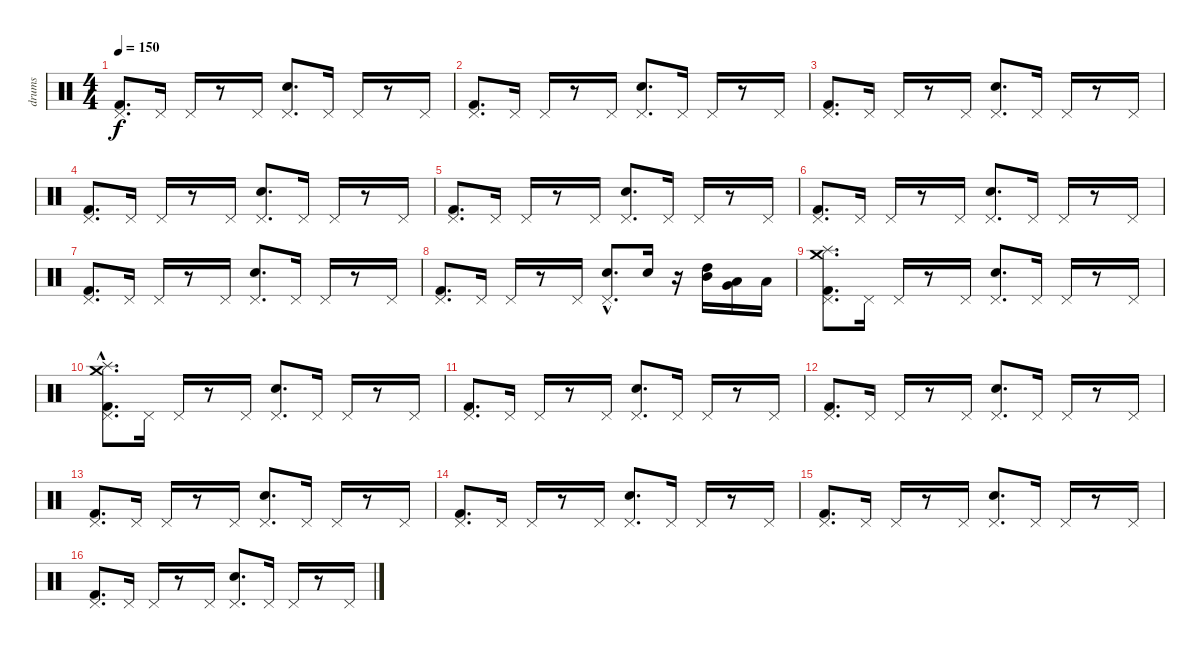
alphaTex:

\track ("drums" "drums") {instrument percussion}
\staff {score}
\articulation defaults
\ts (4 4)
\tempo 150
\clef neutral
\ks c
("Kick (hit) 2" "Pedal Hi-Hat (hit)").8{d dy f} "Pedal Hi-Hat (hit)".16 "Pedal Hi-Hat (hit)".16 r.8 "Pedal Hi-Hat (hit)".16 ("Snare (hit) 2" "Pedal Hi-Hat (hit)").8{d} "Pedal Hi-Hat (hit)".16 "Pedal Hi-Hat (hit)".16 r.8 "Pedal Hi-Hat (hit)".16 |
("Kick (hit) 2" "Pedal Hi-Hat (hit)").8{d} "Pedal Hi-Hat (hit)".16 "Pedal Hi-Hat (hit)".16 r.8 "Pedal Hi-Hat (hit)".16 ("Snare (hit) 2" "Pedal Hi-Hat (hit)").8{d} "Pedal Hi-Hat (hit)".16 "Pedal Hi-Hat (hit)".16 r.8 "Pedal Hi-Hat (hit)".16 |
("Kick (hit) 2" "Pedal Hi-Hat (hit)").8{d} "Pedal Hi-Hat (hit)".16 "Pedal Hi-Hat (hit)".16 r.8 "Pedal Hi-Hat (hit)".16 ("Snare (hit) 2" "Pedal Hi-Hat (hit)").8{d} "Pedal Hi-Hat (hit)".16 "Pedal Hi-Hat (hit)".16 r.8 "Pedal Hi-Hat (hit)".16 |
("Kick (hit) 2" "Pedal Hi-Hat (hit)").8{d} "Pedal Hi-Hat (hit)".16 "Pedal Hi-Hat (hit)".16 r.8 "Pedal Hi-Hat (hit)".16 ("Snare (hit) 2" "Pedal Hi-Hat (hit)").8{d} "Pedal Hi-Hat (hit)".16 "Pedal Hi-Hat (hit)".16 r.8 "Pedal Hi-Hat (hit)".16 |
("Kick (hit) 2" "Pedal Hi-Hat (hit)").8{d} "Pedal Hi-Hat (hit)".16 "Pedal Hi-Hat (hit)".16 r.8 "Pedal Hi-Hat (hit)".16 ("Snare (hit) 2" "Pedal Hi-Hat (hit)").8{d} "Pedal Hi-Hat (hit)".16 "Pedal Hi-Hat (hit)".16 r.8 "Pedal Hi-Hat (hit)".16 |
("Kick (hit) 2" "Pedal Hi-Hat (hit)").8{d} "Pedal Hi-Hat (hit)".16 "Pedal Hi-Hat (hit)".16 r.8 "Pedal Hi-Hat (hit)".16 ("Snare (hit) 2" "Pedal Hi-Hat (hit)").8{d} "Pedal Hi-Hat (hit)".16 "Pedal Hi-Hat (hit)".16 r.8 "Pedal Hi-Hat (hit)".16 |
("Kick (hit) 2" "Pedal Hi-Hat (hit)").8{d} "Pedal Hi-Hat (hit)".16 "Pedal Hi-Hat (hit)".16 r.8 "Pedal Hi-Hat (hit)".16 ("Snare (hit) 2" "Pedal Hi-Hat (hit)").8{d} "Pedal Hi-Hat (hit)".16 "Pedal Hi-Hat (hit)".16 r.8 "Pedal Hi-Hat (hit)".16 |
("Kick (hit) 2" "Pedal Hi-Hat (hit)").8{d} "Pedal Hi-Hat (hit)".16 "Pedal Hi-Hat (hit)".16 r.8 "Pedal Hi-Hat (hit)".16 ("Snare (hit) 2"{hac} "Pedal Hi-Hat (hit)").8{d} "Snare (hit) 2".16 r.16 ("Mid Tom (hit)" "High Tom (hit)").16 ("Very Low Tom (hit)" "Low Tom (hit)").16 "Low Floor Tom (hit)".16 |
("Crash medium (hit)" "Splash (hit)" "Kick (hit) 2" "Pedal Hi-Hat (hit)").8{d} "Pedal Hi-Hat (hit)".16 "Pedal Hi-Hat (hit)".16 r.8 "Pedal Hi-Hat (hit)".16 ("Snare (hit) 2" "Pedal Hi-Hat (hit)").8{d} "Pedal Hi-Hat (hit)".16 "Pedal Hi-Hat (hit)".16 r.8 "Pedal Hi-Hat (hit)".16 |
("Crash medium (hit)"{hac} "Splash (hit)"{hac} "Kick (hit) 2" "Pedal Hi-Hat (hit)").8{d} "Pedal Hi-Hat (hit)".16 "Pedal Hi-Hat (hit)".16 r.8 "Pedal Hi-Hat (hit)".16 ("Snare (hit) 2" "Pedal Hi-Hat (hit)").8{d} "Pedal Hi-Hat (hit)".16 "Pedal Hi-Hat (hit)".16 r.8 "Pedal Hi-Hat (hit)".16 |
("Kick (hit) 2" "Pedal Hi-Hat (hit)").8{d} "Pedal Hi-Hat (hit)".16 "Pedal Hi-Hat (hit)".16 r.8 "Pedal Hi-Hat (hit)".16 ("Snare (hit) 2" "Pedal Hi-Hat (hit)").8{d} "Pedal Hi-Hat (hit)".16 "Pedal Hi-Hat (hit)".16 r.8 "Pedal Hi-Hat (hit)".16 |
("Kick (hit) 2" "Pedal Hi-Hat (hit)").8{d} "Pedal Hi-Hat (hit)".16 "Pedal Hi-Hat (hit)".16 r.8 "Pedal Hi-Hat (hit)".16 ("Snare (hit) 2" "Pedal Hi-Hat (hit)").8{d} "Pedal Hi-Hat (hit)".16 "Pedal Hi-Hat (hit)".16 r.8 "Pedal Hi-Hat (hit)".16 |
("Kick (hit) 2" "Pedal Hi-Hat (hit)").8{d} "Pedal Hi-Hat (hit)".16 "Pedal Hi-Hat (hit)".16 r.8 "Pedal Hi-Hat (hit)".16 ("Snare (hit) 2" "Pedal Hi-Hat (hit)").8{d} "Pedal Hi-Hat (hit)".16 "Pedal Hi-Hat (hit)".16 r.8 "Pedal Hi-Hat (hit)".16 |
("Kick (hit) 2" "Pedal Hi-Hat (hit)").8{d} "Pedal Hi-Hat (hit)".16 "Pedal Hi-Hat (hit)".16 r.8 "Pedal Hi-Hat (hit)".16 ("Snare (hit) 2" "Pedal Hi-Hat (hit)").8{d} "Pedal Hi-Hat (hit)".16 "Pedal Hi-Hat (hit)".16 r.8 "Pedal Hi-Hat (hit)".16 |
("Kick (hit) 2" "Pedal Hi-Hat (hit)").8{d} "Pedal Hi-Hat (hit)".16 "Pedal Hi-Hat (hit)".16 r.8 "Pedal Hi-Hat (hit)".16 ("Snare (hit) 2" "Pedal Hi-Hat (hit)").8{d} "Pedal Hi-Hat (hit)".16 "Pedal Hi-Hat (hit)".16 r.8 "Pedal Hi-Hat (hit)".16 |
("Kick (hit) 2" "Pedal Hi-Hat (hit)").8{d} "Pedal Hi-Hat (hit)".16 "Pedal Hi-Hat (hit)".16 r.8 "Pedal Hi-Hat (hit)".16 ("Snare (hit) 2" "Pedal Hi-Hat (hit)").8{d} "Pedal Hi-Hat (hit)".16 "Pedal Hi-Hat (hit)".16 r.8 "Pedal Hi-Hat (hit)".16
